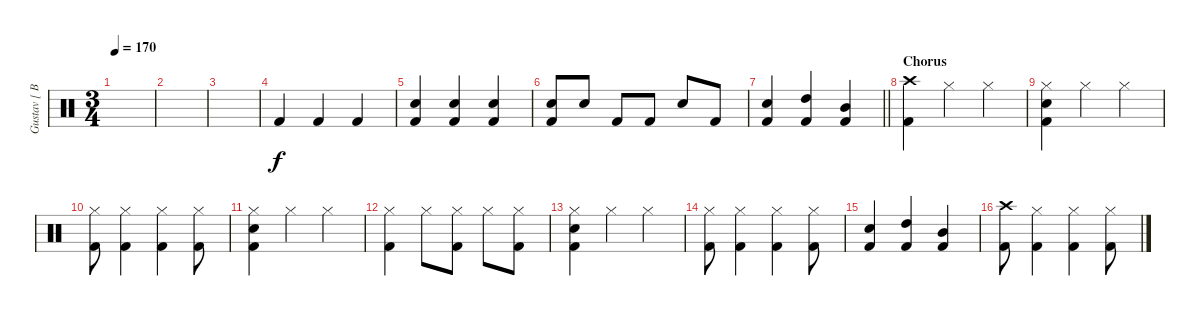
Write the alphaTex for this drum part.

\track ("Gustav [ Batterie ]" "Gustav [ B") {instrument percussion}
\staff {score}
\articulation defaults
\ts (3 4)
\tempo 170
\clef neutral
\ks c
|
|
|
"Kick (hit) 2".4{volume 16} "Kick (hit) 2".4 "Kick (hit) 2".4 |
("Snare (hit) 2" "Kick (hit) 2").4 ("Snare (hit) 2" "Kick (hit) 2").4 ("Snare (hit) 2" "Kick (hit) 2").4 |
("Snare (hit) 2" "Kick (hit) 2").8 "Snare (hit) 2".8 "Kick (hit) 2".8 "Kick (hit) 2".8 "Snare (hit) 2".8 "Kick (hit) 2".8 |
\barLineRight lightlight
("Snare (hit) 2" "Kick (hit) 2").4 ("High Tom (hit)" "Kick (hit) 2").4 ("Mid Tom (hit)" "Kick (hit) 2").4 |
\section ("" "Chorus")
("Crash high (hit)" "Kick (hit) 2").4 "Hi-Hat (closed)".4 "Hi-Hat (closed)".4 |
("Hi-Hat (closed)" "Snare (hit) 2" "Kick (hit) 2").4 "Hi-Hat (closed)".4 "Hi-Hat (closed)".4 |
("Hi-Hat (closed)" "Kick (hit) 2").8 ("Hi-Hat (closed)" "Kick (hit) 2").4 ("Hi-Hat (closed)" "Kick (hit) 2").4 ("Hi-Hat (closed)" "Kick (hit) 2").8 |
("Hi-Hat (closed)" "Snare (hit) 2" "Kick (hit) 2").4 "Hi-Hat (closed)".4 "Hi-Hat (closed)".4 |
("Hi-Hat (closed)" "Kick (hit) 2").4 "Hi-Hat (closed)".8 ("Hi-Hat (closed)" "Kick (hit) 2").8 "Hi-Hat (closed)".8 ("Hi-Hat (closed)" "Kick (hit) 2").8 |
("Hi-Hat (closed)" "Snare (hit) 2" "Kick (hit) 2").4 "Hi-Hat (closed)".4 "Hi-Hat (closed)".4 |
("Hi-Hat (closed)" "Kick (hit) 2").8 ("Hi-Hat (closed)" "Kick (hit) 2").4 ("Hi-Hat (closed)" "Kick (hit) 2").4 ("Hi-Hat (closed)" "Kick (hit) 2").8 |
("Snare (hit) 2" "Kick (hit) 2").4 ("High Tom (hit)" "Kick (hit) 2").4 ("Mid Tom (hit)" "Kick (hit) 2").4 |
("Crash high (hit)" "Kick (hit) 2").8 ("Hi-Hat (closed)" "Kick (hit) 2").4 ("Hi-Hat (closed)" "Kick (hit) 2").4 ("Hi-Hat (closed)" "Kick (hit) 2").8
